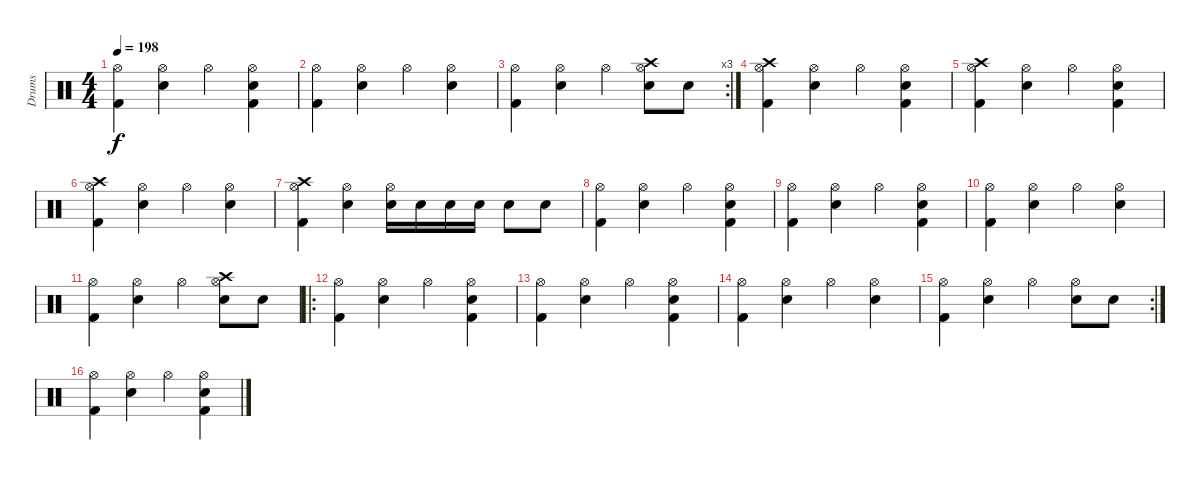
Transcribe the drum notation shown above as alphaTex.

\track ("Drums" "Drums") {instrument percussion}
\staff {score}
\articulation defaults
\ts (4 4)
\tempo 198
\clef neutral
\ks c
("Hi-Hat (open)" "Kick (hit) 2").4{dy f} ("Hi-Hat (open)" "Snare (hit) 2").4 "Hi-Hat (open)".4 ("Hi-Hat (open)" "Snare (hit) 2" "Kick (hit) 2").4 |
("Hi-Hat (open)" "Kick (hit) 2").4 ("Hi-Hat (open)" "Snare (hit) 2").4 "Hi-Hat (open)".4 ("Hi-Hat (open)" "Snare (hit) 2").4 |
\rc 3
("Hi-Hat (open)" "Kick (hit) 2").4 ("Hi-Hat (open)" "Snare (hit) 2").4 "Hi-Hat (open)".4 ("Hi-Hat (open)" "Snare (hit) 2" "Crash high (hit)").8 "Snare (hit) 2".8 |
("Hi-Hat (open)" "Kick (hit) 2" "Crash high (hit)").4 ("Hi-Hat (open)" "Snare (hit) 2").4 "Hi-Hat (open)".4 ("Hi-Hat (open)" "Snare (hit) 2" "Kick (hit) 2").4 |
("Hi-Hat (open)" "Kick (hit) 2" "Crash high (hit)").4 ("Hi-Hat (open)" "Snare (hit) 2").4 "Hi-Hat (open)".4 ("Hi-Hat (open)" "Snare (hit) 2" "Kick (hit) 2").4 |
("Hi-Hat (open)" "Kick (hit) 2" "Crash high (hit)").4 ("Hi-Hat (open)" "Snare (hit) 2").4 "Hi-Hat (open)".4 ("Hi-Hat (open)" "Snare (hit) 2").4 |
("Hi-Hat (open)" "Kick (hit) 2" "Crash high (hit)").4 ("Hi-Hat (open)" "Snare (hit) 2").4 ("Hi-Hat (open)" "Snare (hit) 2").16 "Snare (hit) 2".16 "Snare (hit) 2".16 "Snare (hit) 2".16 "Snare (hit) 2".8 "Snare (hit) 2".8 |
("Hi-Hat (open)" "Kick (hit) 2").4 ("Hi-Hat (open)" "Snare (hit) 2").4 "Hi-Hat (open)".4 ("Hi-Hat (open)" "Snare (hit) 2" "Kick (hit) 2").4 |
("Hi-Hat (open)" "Kick (hit) 2").4 ("Hi-Hat (open)" "Snare (hit) 2").4 "Hi-Hat (open)".4 ("Hi-Hat (open)" "Snare (hit) 2" "Kick (hit) 2").4 |
("Hi-Hat (open)" "Kick (hit) 2").4 ("Hi-Hat (open)" "Snare (hit) 2").4 "Hi-Hat (open)".4 ("Hi-Hat (open)" "Snare (hit) 2").4 |
("Hi-Hat (open)" "Kick (hit) 2").4 ("Hi-Hat (open)" "Snare (hit) 2").4 "Hi-Hat (open)".4 ("Hi-Hat (open)" "Snare (hit) 2" "Crash high (hit)").8 "Snare (hit) 2".8 |
\ro
("Hi-Hat (open)" "Kick (hit) 2").4 ("Hi-Hat (open)" "Snare (hit) 2").4 "Hi-Hat (open)".4 ("Hi-Hat (open)" "Snare (hit) 2" "Kick (hit) 2").4 |
("Hi-Hat (open)" "Kick (hit) 2").4 ("Hi-Hat (open)" "Snare (hit) 2").4 "Hi-Hat (open)".4 ("Hi-Hat (open)" "Snare (hit) 2" "Kick (hit) 2").4 |
("Hi-Hat (open)" "Kick (hit) 2").4 ("Hi-Hat (open)" "Snare (hit) 2").4 "Hi-Hat (open)".4 ("Hi-Hat (open)" "Snare (hit) 2").4 |
\rc 2
("Hi-Hat (open)" "Kick (hit) 2").4 ("Hi-Hat (open)" "Snare (hit) 2").4 "Hi-Hat (open)".4 ("Hi-Hat (open)" "Snare (hit) 2").8 "Snare (hit) 2".8 |
("Hi-Hat (open)" "Kick (hit) 2").4 ("Hi-Hat (open)" "Snare (hit) 2").4 "Hi-Hat (open)".4 ("Hi-Hat (open)" "Snare (hit) 2" "Kick (hit) 2").4
